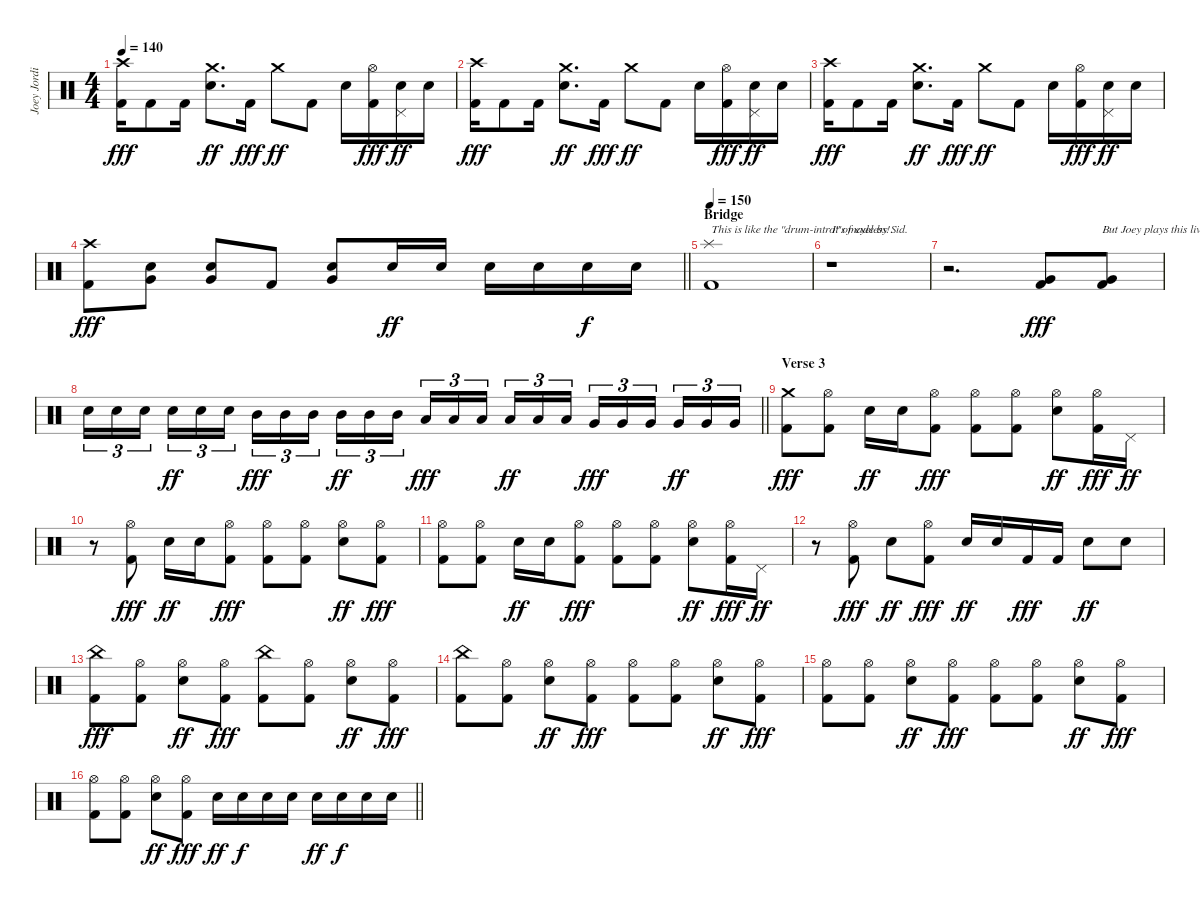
\track ("Joey Jordison" "Joey Jordi") {instrument percussion}
\staff {score}
\articulation defaults
\ts (4 4)
\tempo 140
\clef neutral
\ks c
("Crash high (hit)" "Kick (hit) 2").16{dy fff} "Kick (hit) 2".8 "Kick (hit) 2".16 ("Crash medium (hit)" "Electric Snare (hit)").8{d dy ff} "Kick (hit) 2".16{dy fff} "Crash medium (hit)".8{dy ff} "Kick (hit) 2".8 "Electric Snare (hit)".16 ("Hi-Hat (open)" "Kick (hit) 2").16{dy fff} ("Electric Snare (hit)" "Pedal Hi-Hat (hit)").16{dy ff} "Electric Snare (hit)".16 |
("Crash high (hit)" "Kick (hit) 2").16{dy fff} "Kick (hit) 2".8 "Kick (hit) 2".16 ("Crash medium (hit)" "Electric Snare (hit)").8{d dy ff} "Kick (hit) 2".16{dy fff} "Crash medium (hit)".8{dy ff} "Kick (hit) 2".8 "Electric Snare (hit)".16 ("Hi-Hat (open)" "Kick (hit) 2").16{dy fff} ("Electric Snare (hit)" "Pedal Hi-Hat (hit)").16{dy ff} "Electric Snare (hit)".16 |
("Crash high (hit)" "Kick (hit) 2").16{dy fff} "Kick (hit) 2".8 "Kick (hit) 2".16 ("Crash medium (hit)" "Electric Snare (hit)").8{d dy ff} "Kick (hit) 2".16{dy fff} "Crash medium (hit)".8{dy ff} "Kick (hit) 2".8 "Electric Snare (hit)".16 ("Hi-Hat (open)" "Kick (hit) 2").16{dy fff} ("Electric Snare (hit)" "Pedal Hi-Hat (hit)").16{dy ff} "Electric Snare (hit)".16 |
\barLineRight lightlight
("Crash high (hit)" "Kick (hit) 2").8{dy fff} ("Electric Snare (hit)" "Very Low Tom (hit)").8 ("Electric Snare (hit)" "Very Low Tom (hit)").8 "Kick (hit) 2".8 ("Electric Snare (hit)" "Very Low Tom (hit)").8 "Electric Snare (hit)".16{dy ff} "Electric Snare (hit)".16 "Electric Snare (hit)".16 "Electric Snare (hit)".16 "Electric Snare (hit)".16{dy f} "Electric Snare (hit)".16 |
\section ("" "Bridge")
\tempo 150
("Splash (hit)" "Kick (hit) 2").1{txt "This is like the \"drum-intro\" of eyeless!"} |
r.1{txt "It's made by Sid."} |
r.2{d} ("Very Low Tom (hit)" "Kick (hit) 2").8{dy fff} ("Very Low Tom (hit)" "Kick (hit) 2").8{txt "But Joey plays this live."} |
\barLineRight lightlight "Electric Snare (hit)".16{tu (3 2)} "Electric Snare (hit)".16{tu (3 2)} "Electric Snare (hit)".16{tu (3 2) beam splitsecondary} "Electric Snare (hit)".16{tu (3 2) dy ff} "Electric Snare (hit)".16{tu (3 2)} "Electric Snare (hit)".16{tu (3 2)} "Mid Tom (hit)".16{tu (3 2) dy fff} "Mid Tom (hit)".16{tu (3 2)} "Mid Tom (hit)".16{tu (3 2) beam splitsecondary} "Mid Tom (hit)".16{tu (3 2) dy ff} "Mid Tom (hit)".16{tu (3 2)} "Mid Tom (hit)".16{tu (3 2)} "Low Tom (hit)".16{tu (3 2) dy fff} "Low Tom (hit)".16{tu (3 2)} "Low Tom (hit)".16{tu (3 2) beam splitsecondary} "Low Tom (hit)".16{tu (3 2) dy ff} "Low Tom (hit)".16{tu (3 2)} "Low Tom (hit)".16{tu (3 2)} "Very Low Tom (hit)".16{tu (3 2) dy fff} "Very Low Tom (hit)".16{tu (3 2)} "Very Low Tom (hit)".16{tu (3 2) beam splitsecondary} "Very Low Tom (hit)".16{tu (3 2) dy ff} "Very Low Tom (hit)".16{tu (3 2)} "Very Low Tom (hit)".16{tu (3 2)}
|
\section ("" "Verse 3")
("Crash medium (hit)" "Kick (hit) 2").8{dy fff} ("Hi-Hat (open)" "Kick (hit) 2").8 "Electric Snare (hit)".16{dy ff} "Electric Snare (hit)".16 ("Hi-Hat (open)" "Kick (hit) 2").8{dy fff} ("Hi-Hat (open)" "Kick (hit) 2").8 ("Hi-Hat (open)" "Kick (hit) 2").8 ("Hi-Hat (open)" "Electric Snare (hit)").8{dy ff} ("Hi-Hat (open)" "Kick (hit) 2").16{dy fff} "Pedal Hi-Hat (hit)".16{dy ff} |
r.8 ("Hi-Hat (open)" "Kick (hit) 2").8{dy fff} "Electric Snare (hit)".16{dy ff} "Electric Snare (hit)".16 ("Hi-Hat (open)" "Kick (hit) 2").8{dy fff} ("Hi-Hat (open)" "Kick (hit) 2").8 ("Hi-Hat (open)" "Kick (hit) 2").8 ("Hi-Hat (open)" "Electric Snare (hit)").8{dy ff} ("Hi-Hat (open)" "Kick (hit) 2").8{dy fff} |
("Hi-Hat (open)" "Kick (hit) 2").8 ("Hi-Hat (open)" "Kick (hit) 2").8 "Electric Snare (hit)".16{dy ff} "Electric Snare (hit)".16 ("Hi-Hat (open)" "Kick (hit) 2").8{dy fff} ("Hi-Hat (open)" "Kick (hit) 2").8 ("Hi-Hat (open)" "Kick (hit) 2").8 ("Hi-Hat (open)" "Electric Snare (hit)").8{dy ff} ("Hi-Hat (open)" "Kick (hit) 2").16{dy fff} "Pedal Hi-Hat (hit)".16{dy ff} |
r.8 ("Hi-Hat (open)" "Kick (hit) 2").8{dy fff} "Electric Snare (hit)".8{dy ff} ("Hi-Hat (open)" "Kick (hit) 2").8{dy fff} "Electric Snare (hit)".16{dy ff} "Electric Snare (hit)".16 "Kick (hit) 2".16{dy fff} "Kick (hit) 2".16 "Electric Snare (hit)".8{dy ff} "Electric Snare (hit)".8 |
("China (hit)" "Kick (hit) 2").8{dy fff} ("Hi-Hat (open)" "Kick (hit) 2").8 ("Hi-Hat (open)" "Electric Snare (hit)").8{dy ff} ("Hi-Hat (open)" "Kick (hit) 2").8{dy fff} ("China (hit)" "Kick (hit) 2").8 ("Hi-Hat (open)" "Kick (hit) 2").8 ("Hi-Hat (open)" "Electric Snare (hit)").8{dy ff} ("Hi-Hat (open)" "Kick (hit) 2").8{dy fff} |
("China (hit)" "Kick (hit) 2").8 ("Hi-Hat (open)" "Kick (hit) 2").8 ("Hi-Hat (open)" "Electric Snare (hit)").8{dy ff} ("Hi-Hat (open)" "Kick (hit) 2").8{dy fff} ("Hi-Hat (open)" "Kick (hit) 2").8 ("Hi-Hat (open)" "Kick (hit) 2").8 ("Hi-Hat (open)" "Electric Snare (hit)").8{dy ff} ("Hi-Hat (open)" "Kick (hit) 2").8{dy fff} |
("Hi-Hat (open)" "Kick (hit) 2").8 ("Hi-Hat (open)" "Kick (hit) 2").8 ("Hi-Hat (open)" "Electric Snare (hit)").8{dy ff} ("Hi-Hat (open)" "Kick (hit) 2").8{dy fff} ("Hi-Hat (open)" "Kick (hit) 2").8 ("Hi-Hat (open)" "Kick (hit) 2").8 ("Hi-Hat (open)" "Electric Snare (hit)").8{dy ff} ("Hi-Hat (open)" "Kick (hit) 2").8{dy fff} |
\barLineRight lightlight
("Hi-Hat (open)" "Kick (hit) 2").8 ("Hi-Hat (open)" "Kick (hit) 2").8 ("Hi-Hat (open)" "Electric Snare (hit)").8{dy ff} ("Hi-Hat (open)" "Kick (hit) 2").8{dy fff} "Electric Snare (hit)".16{dy ff} "Electric Snare (hit)".16{dy f} "Electric Snare (hit)".16 "Electric Snare (hit)".16 "Electric Snare (hit)".16{dy ff} "Electric Snare (hit)".16{dy f} "Electric Snare (hit)".16 "Electric Snare (hit)".16
